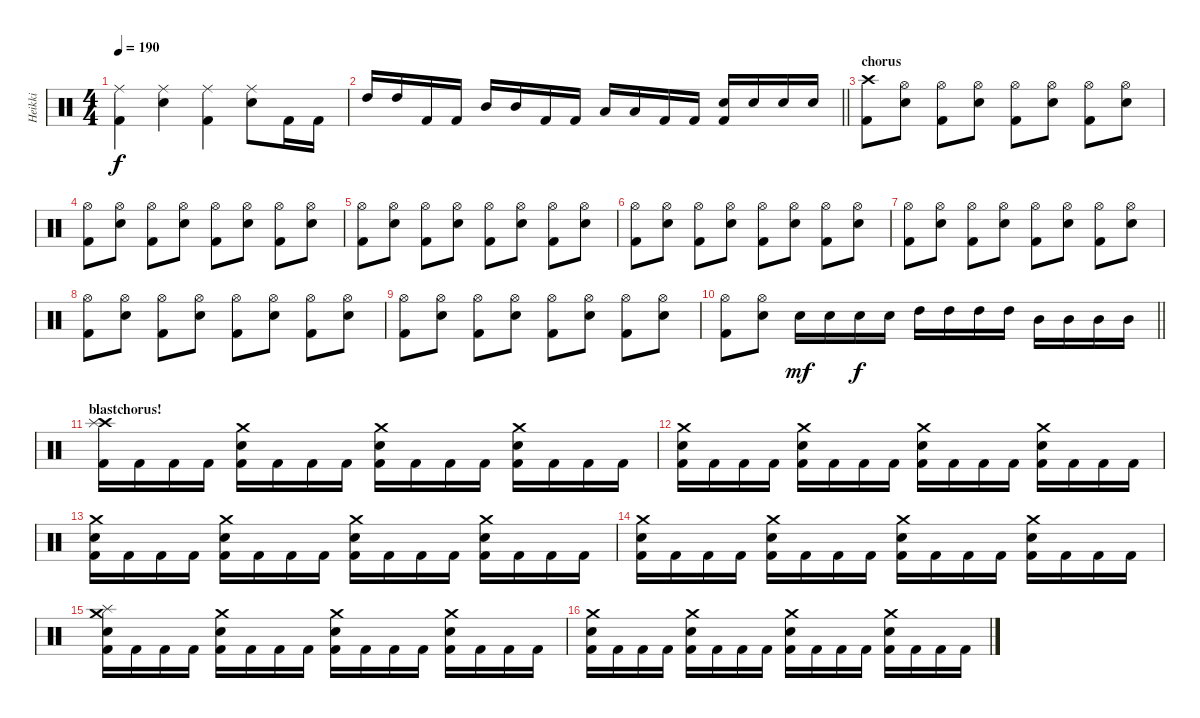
\track ("Heikki" "Heikki") {instrument percussion}
\staff {score}
\articulation defaults
\ts (4 4)
\tempo 190
\clef neutral
\ks c
("Ride (middle)" "Kick (hit) 2").4{dy f} ("Ride (middle)" "Electric Snare (hit)").4 ("Ride (middle)" "Kick (hit) 2").4 ("Ride (middle)" "Electric Snare (hit)").8 "Kick (hit) 2".16 "Kick (hit) 2".16 |
\barLineRight lightlight "High Tom (hit)".16 "High Tom (hit)".16 "Kick (hit) 2".16 "Kick (hit) 2".16 "Mid Tom (hit)".16 "Mid Tom (hit)".16 "Kick (hit) 2".16 "Kick (hit) 2".16 "Low Tom (hit)".16 "Low Tom (hit)".16 "Kick (hit) 2".16 "Kick (hit) 2".16
("Electric Snare (hit)" "Kick (hit) 2").16 "Electric Snare (hit)".16 "Electric Snare (hit)".16 "Electric Snare (hit)".16 |
\section ("" "chorus")
("Crash high (hit)" "Kick (hit) 2").8 ("Hi-Hat (open)" "Electric Snare (hit)").8 ("Hi-Hat (open)" "Kick (hit) 2").8 ("Hi-Hat (open)" "Electric Snare (hit)").8 ("Hi-Hat (open)" "Kick (hit) 2").8 ("Hi-Hat (open)" "Electric Snare (hit)").8 ("Hi-Hat (open)" "Kick (hit) 2").8 ("Hi-Hat (open)" "Electric Snare (hit)").8 |
("Hi-Hat (open)" "Kick (hit) 2").8 ("Hi-Hat (open)" "Electric Snare (hit)").8 ("Hi-Hat (open)" "Kick (hit) 2").8 ("Hi-Hat (open)" "Electric Snare (hit)").8 ("Hi-Hat (open)" "Kick (hit) 2").8 ("Hi-Hat (open)" "Electric Snare (hit)").8 ("Hi-Hat (open)" "Kick (hit) 2").8 ("Hi-Hat (open)" "Electric Snare (hit)").8 |
("Hi-Hat (open)" "Kick (hit) 2").8 ("Hi-Hat (open)" "Electric Snare (hit)").8 ("Hi-Hat (open)" "Kick (hit) 2").8 ("Hi-Hat (open)" "Electric Snare (hit)").8 ("Hi-Hat (open)" "Kick (hit) 2").8 ("Hi-Hat (open)" "Electric Snare (hit)").8 ("Hi-Hat (open)" "Kick (hit) 2").8 ("Hi-Hat (open)" "Electric Snare (hit)").8 |
("Hi-Hat (open)" "Kick (hit) 2").8 ("Hi-Hat (open)" "Electric Snare (hit)").8 ("Hi-Hat (open)" "Kick (hit) 2").8 ("Hi-Hat (open)" "Electric Snare (hit)").8 ("Hi-Hat (open)" "Kick (hit) 2").8 ("Hi-Hat (open)" "Electric Snare (hit)").8 ("Hi-Hat (open)" "Kick (hit) 2").8 ("Hi-Hat (open)" "Electric Snare (hit)").8 |
("Hi-Hat (open)" "Kick (hit) 2").8 ("Hi-Hat (open)" "Electric Snare (hit)").8 ("Hi-Hat (open)" "Kick (hit) 2").8 ("Hi-Hat (open)" "Electric Snare (hit)").8 ("Hi-Hat (open)" "Kick (hit) 2").8 ("Hi-Hat (open)" "Electric Snare (hit)").8 ("Hi-Hat (open)" "Kick (hit) 2").8 ("Hi-Hat (open)" "Electric Snare (hit)").8 |
("Hi-Hat (open)" "Kick (hit) 2").8 ("Hi-Hat (open)" "Electric Snare (hit)").8 ("Hi-Hat (open)" "Kick (hit) 2").8 ("Hi-Hat (open)" "Electric Snare (hit)").8 ("Hi-Hat (open)" "Kick (hit) 2").8 ("Hi-Hat (open)" "Electric Snare (hit)").8 ("Hi-Hat (open)" "Kick (hit) 2").8 ("Hi-Hat (open)" "Electric Snare (hit)").8 |
("Hi-Hat (open)" "Kick (hit) 2").8 ("Hi-Hat (open)" "Electric Snare (hit)").8 ("Hi-Hat (open)" "Kick (hit) 2").8 ("Hi-Hat (open)" "Electric Snare (hit)").8 ("Hi-Hat (open)" "Kick (hit) 2").8 ("Hi-Hat (open)" "Electric Snare (hit)").8 ("Hi-Hat (open)" "Kick (hit) 2").8 ("Hi-Hat (open)" "Electric Snare (hit)").8 |
\barLineRight lightlight
("Hi-Hat (open)" "Kick (hit) 2").8 ("Hi-Hat (open)" "Electric Snare (hit)").8 "Electric Snare (hit)".16{dy mf} "Electric Snare (hit)".16 "Electric Snare (hit)".16{dy f} "Electric Snare (hit)".16 "High Tom (hit)".16 "High Tom (hit)".16 "High Tom (hit)".16 "High Tom (hit)".16 "Mid Tom (hit)".16 "Mid Tom (hit)".16 "Mid Tom (hit)".16 "Mid Tom (hit)".16 |
\section ("" "blastchorus!")
("Crash high (hit)" "Splash (hit)" "Kick (hit) 2").16 "Kick (hit) 2".16 "Kick (hit) 2".16 "Kick (hit) 2".16 ("Crash medium (hit)" "Electric Snare (hit)" "Kick (hit) 2").16 "Kick (hit) 2".16 "Kick (hit) 2".16 "Kick (hit) 2".16 ("Crash medium (hit)" "Electric Snare (hit)" "Kick (hit) 2").16 "Kick (hit) 2".16 "Kick (hit) 2".16 "Kick (hit) 2".16 ("Crash medium (hit)" "Electric Snare (hit)" "Kick (hit) 2").16 "Kick (hit) 2".16 "Kick (hit) 2".16 "Kick (hit) 2".16 |
("Crash medium (hit)" "Electric Snare (hit)" "Kick (hit) 2").16 "Kick (hit) 2".16 "Kick (hit) 2".16 "Kick (hit) 2".16 ("Crash medium (hit)" "Electric Snare (hit)" "Kick (hit) 2").16 "Kick (hit) 2".16 "Kick (hit) 2".16 "Kick (hit) 2".16 ("Crash medium (hit)" "Electric Snare (hit)" "Kick (hit) 2").16 "Kick (hit) 2".16 "Kick (hit) 2".16 "Kick (hit) 2".16 ("Crash medium (hit)" "Electric Snare (hit)" "Kick (hit) 2").16 "Kick (hit) 2".16 "Kick (hit) 2".16 "Kick (hit) 2".16 |
("Crash medium (hit)" "Electric Snare (hit)" "Kick (hit) 2").16 "Kick (hit) 2".16 "Kick (hit) 2".16 "Kick (hit) 2".16 ("Crash medium (hit)" "Electric Snare (hit)" "Kick (hit) 2").16 "Kick (hit) 2".16 "Kick (hit) 2".16 "Kick (hit) 2".16 ("Crash medium (hit)" "Electric Snare (hit)" "Kick (hit) 2").16 "Kick (hit) 2".16 "Kick (hit) 2".16 "Kick (hit) 2".16 ("Crash medium (hit)" "Electric Snare (hit)" "Kick (hit) 2").16 "Kick (hit) 2".16 "Kick (hit) 2".16 "Kick (hit) 2".16 |
("Crash medium (hit)" "Electric Snare (hit)" "Kick (hit) 2").16 "Kick (hit) 2".16 "Kick (hit) 2".16 "Kick (hit) 2".16 ("Crash medium (hit)" "Electric Snare (hit)" "Kick (hit) 2").16 "Kick (hit) 2".16 "Kick (hit) 2".16 "Kick (hit) 2".16 ("Crash medium (hit)" "Electric Snare (hit)" "Kick (hit) 2").16 "Kick (hit) 2".16 "Kick (hit) 2".16 "Kick (hit) 2".16 ("Crash medium (hit)" "Electric Snare (hit)" "Kick (hit) 2").16 "Kick (hit) 2".16 "Kick (hit) 2".16 "Kick (hit) 2".16 |
("Crash medium (hit)" "Splash (hit)" "Electric Snare (hit)" "Kick (hit) 2").16 "Kick (hit) 2".16 "Kick (hit) 2".16 "Kick (hit) 2".16 ("Crash medium (hit)" "Electric Snare (hit)" "Kick (hit) 2").16 "Kick (hit) 2".16 "Kick (hit) 2".16 "Kick (hit) 2".16 ("Crash medium (hit)" "Electric Snare (hit)" "Kick (hit) 2").16 "Kick (hit) 2".16 "Kick (hit) 2".16 "Kick (hit) 2".16 ("Crash medium (hit)" "Electric Snare (hit)" "Kick (hit) 2").16 "Kick (hit) 2".16 "Kick (hit) 2".16 "Kick (hit) 2".16 |
("Crash medium (hit)" "Electric Snare (hit)" "Kick (hit) 2").16 "Kick (hit) 2".16 "Kick (hit) 2".16 "Kick (hit) 2".16 ("Crash medium (hit)" "Electric Snare (hit)" "Kick (hit) 2").16 "Kick (hit) 2".16 "Kick (hit) 2".16 "Kick (hit) 2".16 ("Crash medium (hit)" "Electric Snare (hit)" "Kick (hit) 2").16 "Kick (hit) 2".16 "Kick (hit) 2".16 "Kick (hit) 2".16 ("Crash medium (hit)" "Electric Snare (hit)" "Kick (hit) 2").16 "Kick (hit) 2".16 "Kick (hit) 2".16 "Kick (hit) 2".16
